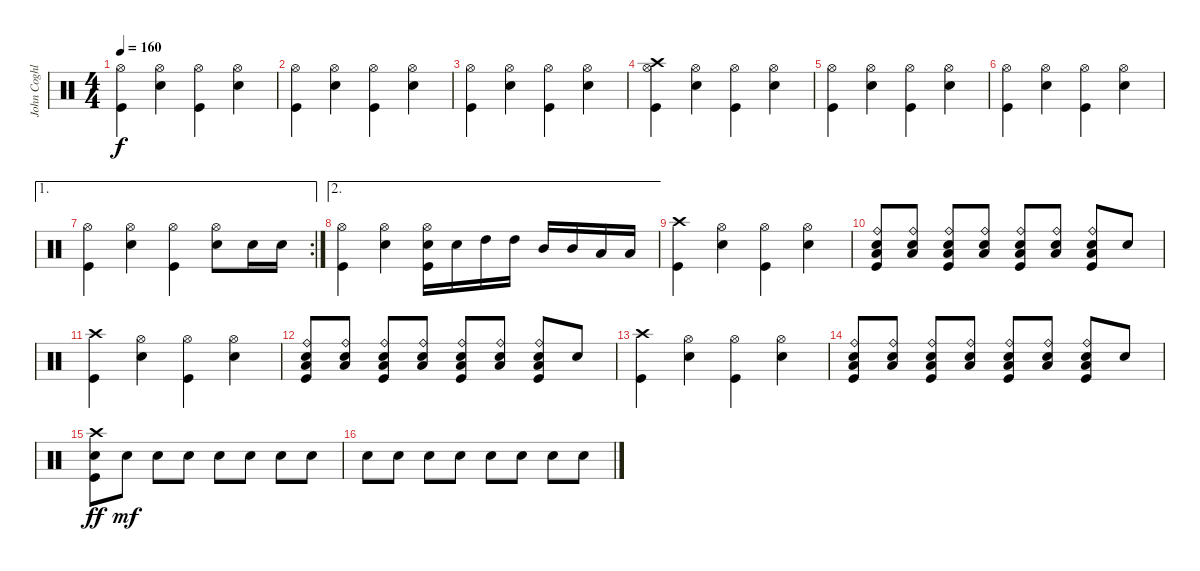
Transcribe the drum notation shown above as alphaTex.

\track ("John Coghlan" "John Coghl") {instrument percussion}
\staff {score}
\articulation defaults
\ts (4 4)
\tempo 160
\clef neutral
\ks c
("Hi-Hat (open)" "Kick (hit)").4{dy f} ("Electric Snare (hit)" "Hi-Hat (open)").4 ("Hi-Hat (open)" "Kick (hit)").4 ("Electric Snare (hit)" "Hi-Hat (open)").4 |
("Hi-Hat (open)" "Kick (hit)").4 ("Electric Snare (hit)" "Hi-Hat (open)").4 ("Hi-Hat (open)" "Kick (hit)").4 ("Electric Snare (hit)" "Hi-Hat (open)").4 |
("Hi-Hat (open)" "Kick (hit)").4 ("Electric Snare (hit)" "Hi-Hat (open)").4 ("Hi-Hat (open)" "Kick (hit)").4 ("Electric Snare (hit)" "Hi-Hat (open)").4 |
("Crash high (hit)" "Hi-Hat (open)" "Kick (hit)").4 ("Electric Snare (hit)" "Hi-Hat (open)").4 ("Hi-Hat (open)" "Kick (hit)").4 ("Electric Snare (hit)" "Hi-Hat (open)").4 |
("Hi-Hat (open)" "Kick (hit)").4 ("Electric Snare (hit)" "Hi-Hat (open)").4 ("Hi-Hat (open)" "Kick (hit)").4 ("Electric Snare (hit)" "Hi-Hat (open)").4 |
("Hi-Hat (open)" "Kick (hit)").4 ("Electric Snare (hit)" "Hi-Hat (open)").4 ("Hi-Hat (open)" "Kick (hit)").4 ("Electric Snare (hit)" "Hi-Hat (open)").4 |
\ae 1
\rc 2
("Hi-Hat (open)" "Kick (hit)").4 ("Electric Snare (hit)" "Hi-Hat (open)").4 ("Hi-Hat (open)" "Kick (hit)").4 ("Electric Snare (hit)" "Hi-Hat (open)").8 "Electric Snare (hit)".16 "Electric Snare (hit)".16 |
\ae 2
("Hi-Hat (open)" "Kick (hit)").4 ("Electric Snare (hit)" "Hi-Hat (open)").4 ("Electric Snare (hit)" "Hi-Hat (open)" "Kick (hit)").16 "Electric Snare (hit)".16 "High Tom (hit)".16 "High Tom (hit)".16 "Mid Tom (hit)".16 "Mid Tom (hit)".16 "Low Tom (hit)".16 "Low Tom (hit)".16 |
("Crash high (hit)" "Kick (hit)").4 ("Hi-Hat (open)" "Electric Snare (hit)").4 ("Hi-Hat (open)" "Kick (hit)").4 ("Hi-Hat (open)" "Electric Snare (hit)").4 |
("Ride (bell)" "Low Floor Tom (hit)" "Electric Snare (hit)" "Kick (hit)").8 ("Ride (bell)" "Low Floor Tom (hit)" "Electric Snare (hit)").8 ("Ride (bell)" "Low Floor Tom (hit)" "Electric Snare (hit)" "Kick (hit)").8 ("Ride (bell)" "Low Floor Tom (hit)" "Electric Snare (hit)").8 ("Ride (bell)" "Low Floor Tom (hit)" "Electric Snare (hit)" "Kick (hit)").8 ("Ride (bell)" "Low Floor Tom (hit)" "Electric Snare (hit)").8 ("Ride (bell)" "Low Floor Tom (hit)" "Electric Snare (hit)" "Kick (hit)").8 "Electric Snare (hit)".8 |
("Crash high (hit)" "Kick (hit)").4 ("Hi-Hat (open)" "Electric Snare (hit)").4 ("Hi-Hat (open)" "Kick (hit)").4 ("Hi-Hat (open)" "Electric Snare (hit)").4 |
("Ride (bell)" "Low Floor Tom (hit)" "Electric Snare (hit)" "Kick (hit)").8 ("Ride (bell)" "Low Floor Tom (hit)" "Electric Snare (hit)").8 ("Ride (bell)" "Low Floor Tom (hit)" "Electric Snare (hit)" "Kick (hit)").8 ("Ride (bell)" "Low Floor Tom (hit)" "Electric Snare (hit)").8 ("Ride (bell)" "Low Floor Tom (hit)" "Electric Snare (hit)" "Kick (hit)").8 ("Ride (bell)" "Low Floor Tom (hit)" "Electric Snare (hit)").8 ("Ride (bell)" "Low Floor Tom (hit)" "Electric Snare (hit)" "Kick (hit)").8 "Electric Snare (hit)".8 |
("Crash high (hit)" "Kick (hit)").4 ("Hi-Hat (open)" "Electric Snare (hit)").4 ("Hi-Hat (open)" "Kick (hit)").4 ("Hi-Hat (open)" "Electric Snare (hit)").4 |
("Ride (bell)" "Low Floor Tom (hit)" "Electric Snare (hit)" "Kick (hit)").8 ("Ride (bell)" "Low Floor Tom (hit)" "Electric Snare (hit)").8 ("Ride (bell)" "Low Floor Tom (hit)" "Electric Snare (hit)" "Kick (hit)").8 ("Ride (bell)" "Low Floor Tom (hit)" "Electric Snare (hit)").8 ("Ride (bell)" "Low Floor Tom (hit)" "Electric Snare (hit)" "Kick (hit)").8 ("Ride (bell)" "Low Floor Tom (hit)" "Electric Snare (hit)").8 ("Ride (bell)" "Low Floor Tom (hit)" "Electric Snare (hit)" "Kick (hit)").8 "Electric Snare (hit)".8 |
("Crash high (hit)" "Electric Snare (hit)" "Kick (hit)").8{dy ff} "Electric Snare (hit)".8{dy mf} "Electric Snare (hit)".8 "Electric Snare (hit)".8 "Electric Snare (hit)".8 "Electric Snare (hit)".8 "Electric Snare (hit)".8 "Electric Snare (hit)".8 |
"Electric Snare (hit)".8 "Electric Snare (hit)".8 "Electric Snare (hit)".8 "Electric Snare (hit)".8 "Electric Snare (hit)".8 "Electric Snare (hit)".8 "Electric Snare (hit)".8 "Electric Snare (hit)".8
